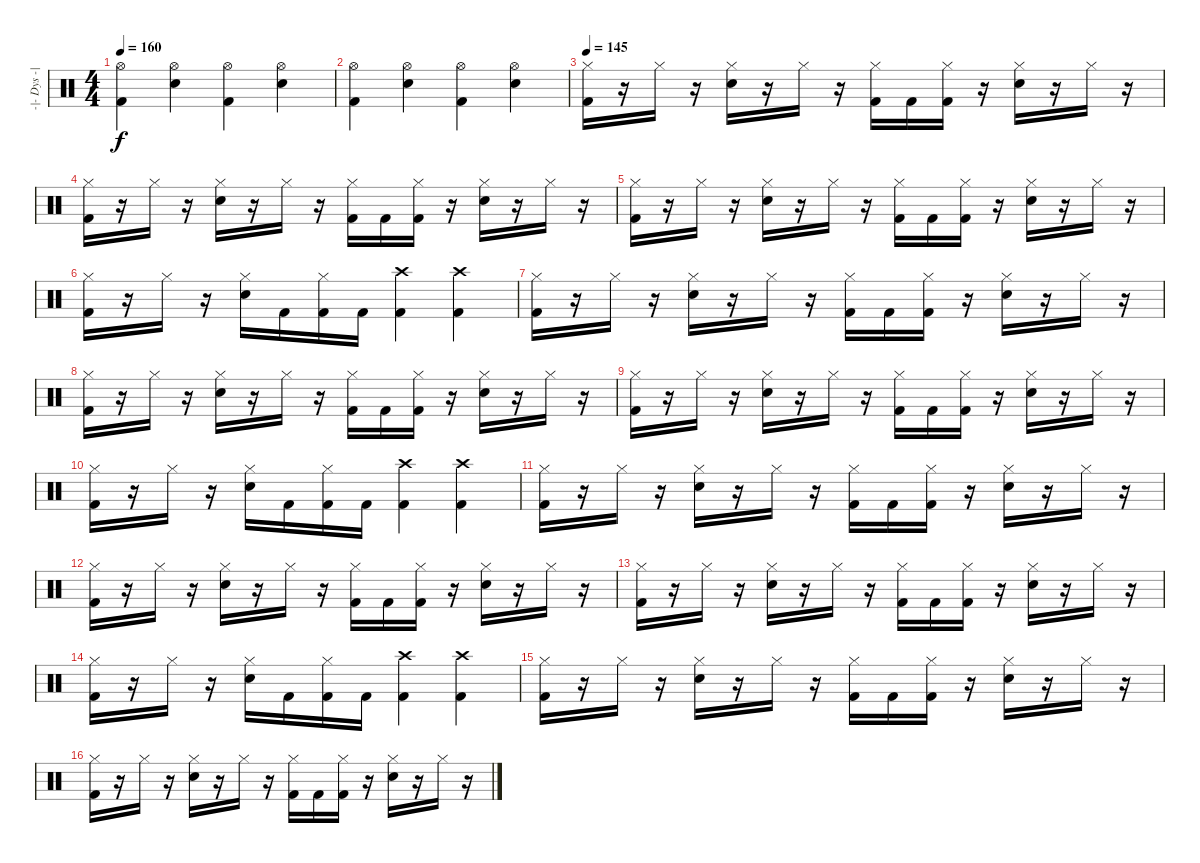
\track ("-|- Dys -|-" "-|- Dys -|") {instrument percussion}
\staff {score}
\articulation defaults
\ts (4 4)
\tempo 160
\clef neutral
\ks c
("Hi-Hat (open)" "Kick (hit) 2").4{dy f} ("Hi-Hat (open)" "Snare (hit) 2").4 ("Hi-Hat (open)" "Kick (hit) 2").4 ("Hi-Hat (open)" "Snare (hit) 2").4 |
("Hi-Hat (open)" "Kick (hit) 2").4 ("Hi-Hat (open)" "Snare (hit) 2").4 ("Hi-Hat (open)" "Kick (hit) 2").4 ("Hi-Hat (open)" "Snare (hit) 2").4 |
\tempo 145
("Hi-Hat (closed)" "Kick (hit) 2").16 r.16 "Hi-Hat (closed)".16 r.16 ("Hi-Hat (closed)" "Snare (hit) 2").16 r.16 "Hi-Hat (closed)".16 r.16 ("Hi-Hat (closed)" "Kick (hit) 2").16 "Kick (hit) 2".16 ("Hi-Hat (closed)" "Kick (hit) 2").16 r.16 ("Hi-Hat (closed)" "Snare (hit) 2").16 r.16 "Hi-Hat (closed)".16 r.16 |
("Hi-Hat (closed)" "Kick (hit) 2").16 r.16 "Hi-Hat (closed)".16 r.16 ("Hi-Hat (closed)" "Snare (hit) 2").16 r.16 "Hi-Hat (closed)".16 r.16 ("Hi-Hat (closed)" "Kick (hit) 2").16 "Kick (hit) 2".16 ("Hi-Hat (closed)" "Kick (hit) 2").16 r.16 ("Hi-Hat (closed)" "Snare (hit) 2").16 r.16 "Hi-Hat (closed)".16 r.16 |
("Hi-Hat (closed)" "Kick (hit) 2").16 r.16 "Hi-Hat (closed)".16 r.16 ("Hi-Hat (closed)" "Snare (hit) 2").16 r.16 "Hi-Hat (closed)".16 r.16 ("Hi-Hat (closed)" "Kick (hit) 2").16 "Kick (hit) 2".16 ("Hi-Hat (closed)" "Kick (hit) 2").16 r.16 ("Hi-Hat (closed)" "Snare (hit) 2").16 r.16 "Hi-Hat (closed)".16 r.16 |
("Hi-Hat (closed)" "Kick (hit) 2").16 r.16 "Hi-Hat (closed)".16 r.16 ("Hi-Hat (closed)" "Snare (hit) 2").16 "Kick (hit) 2".16 ("Hi-Hat (closed)" "Kick (hit) 2").16 "Kick (hit) 2".16 ("Crash high (hit)" "Kick (hit) 2").4 ("Crash high (hit)" "Kick (hit) 2").4 |
("Hi-Hat (closed)" "Kick (hit) 2").16 r.16 "Hi-Hat (closed)".16 r.16 ("Hi-Hat (closed)" "Snare (hit) 2").16 r.16 "Hi-Hat (closed)".16 r.16 ("Hi-Hat (closed)" "Kick (hit) 2").16 "Kick (hit) 2".16 ("Hi-Hat (closed)" "Kick (hit) 2").16 r.16 ("Hi-Hat (closed)" "Snare (hit) 2").16 r.16 "Hi-Hat (closed)".16 r.16 |
("Hi-Hat (closed)" "Kick (hit) 2").16 r.16 "Hi-Hat (closed)".16 r.16 ("Hi-Hat (closed)" "Snare (hit) 2").16 r.16 "Hi-Hat (closed)".16 r.16 ("Hi-Hat (closed)" "Kick (hit) 2").16 "Kick (hit) 2".16 ("Hi-Hat (closed)" "Kick (hit) 2").16 r.16 ("Hi-Hat (closed)" "Snare (hit) 2").16 r.16 "Hi-Hat (closed)".16 r.16 |
("Hi-Hat (closed)" "Kick (hit) 2").16 r.16 "Hi-Hat (closed)".16 r.16 ("Hi-Hat (closed)" "Snare (hit) 2").16 r.16 "Hi-Hat (closed)".16 r.16 ("Hi-Hat (closed)" "Kick (hit) 2").16 "Kick (hit) 2".16 ("Hi-Hat (closed)" "Kick (hit) 2").16 r.16 ("Hi-Hat (closed)" "Snare (hit) 2").16 r.16 "Hi-Hat (closed)".16 r.16 |
("Hi-Hat (closed)" "Kick (hit) 2").16 r.16 "Hi-Hat (closed)".16 r.16 ("Hi-Hat (closed)" "Snare (hit) 2").16 "Kick (hit) 2".16 ("Hi-Hat (closed)" "Kick (hit) 2").16 "Kick (hit) 2".16 ("Crash high (hit)" "Kick (hit) 2").4 ("Crash high (hit)" "Kick (hit) 2").4 |
("Hi-Hat (closed)" "Kick (hit) 2").16 r.16 "Hi-Hat (closed)".16 r.16 ("Hi-Hat (closed)" "Snare (hit) 2").16 r.16 "Hi-Hat (closed)".16 r.16 ("Hi-Hat (closed)" "Kick (hit) 2").16 "Kick (hit) 2".16 ("Hi-Hat (closed)" "Kick (hit) 2").16 r.16 ("Hi-Hat (closed)" "Snare (hit) 2").16 r.16 "Hi-Hat (closed)".16 r.16 |
("Hi-Hat (closed)" "Kick (hit) 2").16 r.16 "Hi-Hat (closed)".16 r.16 ("Hi-Hat (closed)" "Snare (hit) 2").16 r.16 "Hi-Hat (closed)".16 r.16 ("Hi-Hat (closed)" "Kick (hit) 2").16 "Kick (hit) 2".16 ("Hi-Hat (closed)" "Kick (hit) 2").16 r.16 ("Hi-Hat (closed)" "Snare (hit) 2").16 r.16 "Hi-Hat (closed)".16 r.16 |
("Hi-Hat (closed)" "Kick (hit) 2").16 r.16 "Hi-Hat (closed)".16 r.16 ("Hi-Hat (closed)" "Snare (hit) 2").16 r.16 "Hi-Hat (closed)".16 r.16 ("Hi-Hat (closed)" "Kick (hit) 2").16 "Kick (hit) 2".16 ("Hi-Hat (closed)" "Kick (hit) 2").16 r.16 ("Hi-Hat (closed)" "Snare (hit) 2").16 r.16 "Hi-Hat (closed)".16 r.16 |
("Hi-Hat (closed)" "Kick (hit) 2").16 r.16 "Hi-Hat (closed)".16 r.16 ("Hi-Hat (closed)" "Snare (hit) 2").16 "Kick (hit) 2".16 ("Hi-Hat (closed)" "Kick (hit) 2").16 "Kick (hit) 2".16 ("Crash high (hit)" "Kick (hit) 2").4 ("Crash high (hit)" "Kick (hit) 2").4 |
("Hi-Hat (closed)" "Kick (hit) 2").16 r.16 "Hi-Hat (closed)".16 r.16 ("Hi-Hat (closed)" "Snare (hit) 2").16 r.16 "Hi-Hat (closed)".16 r.16 ("Hi-Hat (closed)" "Kick (hit) 2").16 "Kick (hit) 2".16 ("Hi-Hat (closed)" "Kick (hit) 2").16 r.16 ("Hi-Hat (closed)" "Snare (hit) 2").16 r.16 "Hi-Hat (closed)".16 r.16 |
("Hi-Hat (closed)" "Kick (hit) 2").16 r.16 "Hi-Hat (closed)".16 r.16 ("Hi-Hat (closed)" "Snare (hit) 2").16 r.16 "Hi-Hat (closed)".16 r.16 ("Hi-Hat (closed)" "Kick (hit) 2").16 "Kick (hit) 2".16 ("Hi-Hat (closed)" "Kick (hit) 2").16 r.16 ("Hi-Hat (closed)" "Snare (hit) 2").16 r.16 "Hi-Hat (closed)".16 r.16
